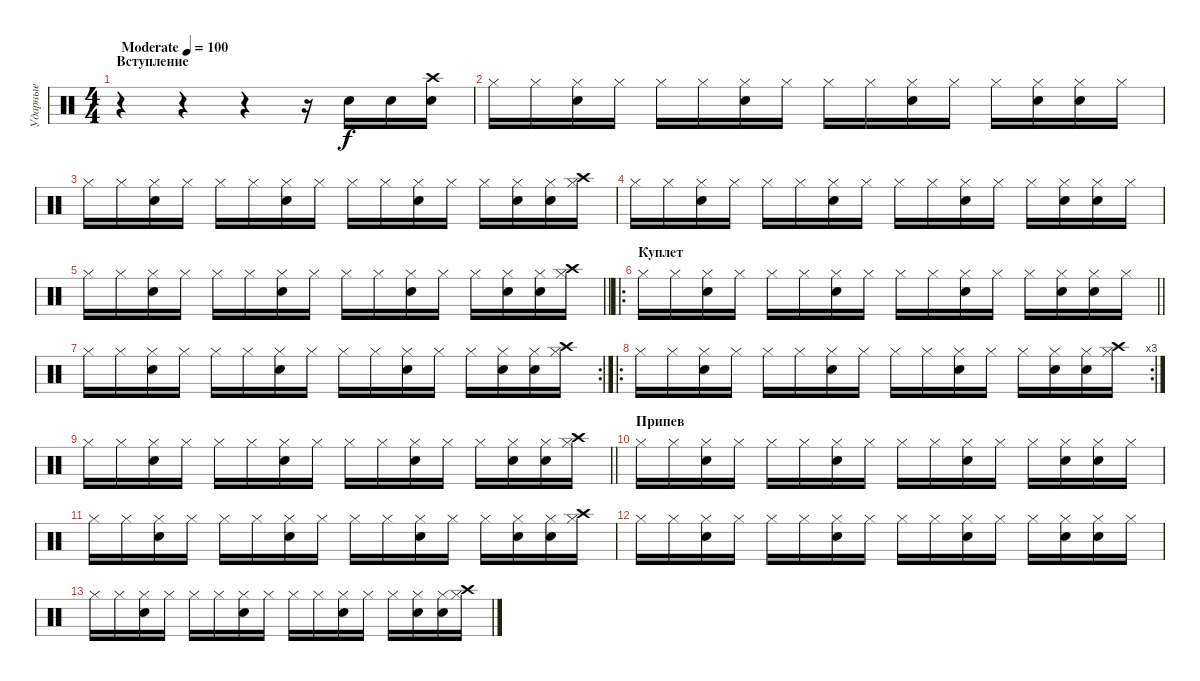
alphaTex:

\track ("Ударные" "Ударные") {instrument percussion}
\staff {score}
\articulation defaults
\ts (4 4)
\section ("" "Вступление")
\tempo (100 "Moderate")
\clef neutral
\ks c
r.4{dy f} r.4 r.4 r.16 "Snare (hit) 2".16 "Snare (hit) 2".16 ("Snare (hit) 2" "Crash high (hit)").16 |
"Hi-Hat (closed)".16 "Hi-Hat (closed)".16 ("Hi-Hat (closed)" "Snare (hit) 2").16 "Hi-Hat (closed)".16 "Hi-Hat (closed)".16 "Hi-Hat (closed)".16 ("Hi-Hat (closed)" "Electric Snare (hit)").16 "Hi-Hat (closed)".16 "Hi-Hat (closed)".16 "Hi-Hat (closed)".16 ("Hi-Hat (closed)" "Electric Snare (hit)").16 "Hi-Hat (closed)".16 "Hi-Hat (closed)".16 ("Hi-Hat (closed)" "Snare (hit) 2").16 ("Hi-Hat (closed)" "Electric Snare (hit)").16 "Hi-Hat (closed)".16 |
"Hi-Hat (closed)".16 "Hi-Hat (closed)".16 ("Hi-Hat (closed)" "Snare (hit) 2").16 "Hi-Hat (closed)".16 "Hi-Hat (closed)".16 "Hi-Hat (closed)".16 ("Hi-Hat (closed)" "Electric Snare (hit)").16 "Hi-Hat (closed)".16 "Hi-Hat (closed)".16 "Hi-Hat (closed)".16 ("Hi-Hat (closed)" "Electric Snare (hit)").16 "Hi-Hat (closed)".16 "Hi-Hat (closed)".16 ("Hi-Hat (closed)" "Snare (hit) 2").16 ("Hi-Hat (closed)" "Electric Snare (hit)").16 ("Hi-Hat (closed)" "Crash high (hit)").16 |
"Hi-Hat (closed)".16 "Hi-Hat (closed)".16 ("Hi-Hat (closed)" "Snare (hit) 2").16 "Hi-Hat (closed)".16 "Hi-Hat (closed)".16 "Hi-Hat (closed)".16 ("Hi-Hat (closed)" "Electric Snare (hit)").16 "Hi-Hat (closed)".16 "Hi-Hat (closed)".16 "Hi-Hat (closed)".16 ("Hi-Hat (closed)" "Electric Snare (hit)").16 "Hi-Hat (closed)".16 "Hi-Hat (closed)".16 ("Hi-Hat (closed)" "Snare (hit) 2").16 ("Hi-Hat (closed)" "Electric Snare (hit)").16 "Hi-Hat (closed)".16 |
\barLineRight lightlight "Hi-Hat (closed)".16 "Hi-Hat (closed)".16
("Hi-Hat (closed)" "Snare (hit) 2").16 "Hi-Hat (closed)".16 "Hi-Hat (closed)".16 "Hi-Hat (closed)".16 ("Hi-Hat (closed)" "Electric Snare (hit)").16 "Hi-Hat (closed)".16 "Hi-Hat (closed)".16 "Hi-Hat (closed)".16 ("Hi-Hat (closed)" "Electric Snare (hit)").16 "Hi-Hat (closed)".16 "Hi-Hat (closed)".16 ("Hi-Hat (closed)" "Snare (hit) 2").16 ("Hi-Hat (closed)" "Electric Snare (hit)").16 ("Hi-Hat (closed)" "Crash high (hit)").16 |
\ro
\section ("" "Куплет")
\barLineRight lightlight "Hi-Hat (closed)".16 "Hi-Hat (closed)".16
("Hi-Hat (closed)" "Snare (hit) 2").16 "Hi-Hat (closed)".16 "Hi-Hat (closed)".16 "Hi-Hat (closed)".16 ("Hi-Hat (closed)" "Electric Snare (hit)").16 "Hi-Hat (closed)".16 "Hi-Hat (closed)".16 "Hi-Hat (closed)".16 ("Hi-Hat (closed)" "Electric Snare (hit)").16 "Hi-Hat (closed)".16 "Hi-Hat (closed)".16 ("Hi-Hat (closed)" "Snare (hit) 2").16 ("Hi-Hat (closed)" "Electric Snare (hit)").16 "Hi-Hat (closed)".16 |
\rc 2
\section ("" "")
"Hi-Hat (closed)".16 "Hi-Hat (closed)".16 ("Hi-Hat (closed)" "Snare (hit) 2").16 "Hi-Hat (closed)".16 "Hi-Hat (closed)".16 "Hi-Hat (closed)".16 ("Hi-Hat (closed)" "Electric Snare (hit)").16 "Hi-Hat (closed)".16 "Hi-Hat (closed)".16 "Hi-Hat (closed)".16 ("Hi-Hat (closed)" "Electric Snare (hit)").16 "Hi-Hat (closed)".16 "Hi-Hat (closed)".16 ("Hi-Hat (closed)" "Snare (hit) 2").16 ("Hi-Hat (closed)" "Electric Snare (hit)").16 ("Hi-Hat (closed)" "Crash high (hit)").16 |
\ro
\rc 3 "Hi-Hat (closed)".16 "Hi-Hat (closed)".16
("Hi-Hat (closed)" "Snare (hit) 2").16 "Hi-Hat (closed)".16 "Hi-Hat (closed)".16 "Hi-Hat (closed)".16 ("Hi-Hat (closed)" "Electric Snare (hit)").16 "Hi-Hat (closed)".16 "Hi-Hat (closed)".16 "Hi-Hat (closed)".16 ("Hi-Hat (closed)" "Electric Snare (hit)").16 "Hi-Hat (closed)".16 "Hi-Hat (closed)".16 ("Hi-Hat (closed)" "Snare (hit) 2").16 ("Hi-Hat (closed)" "Electric Snare (hit)").16 ("Hi-Hat (closed)" "Crash high (hit)").16 |
\barLineRight lightlight "Hi-Hat (closed)".16 "Hi-Hat (closed)".16
("Hi-Hat (closed)" "Snare (hit) 2").16 "Hi-Hat (closed)".16 "Hi-Hat (closed)".16 "Hi-Hat (closed)".16 ("Hi-Hat (closed)" "Electric Snare (hit)").16 "Hi-Hat (closed)".16 "Hi-Hat (closed)".16 "Hi-Hat (closed)".16 ("Hi-Hat (closed)" "Electric Snare (hit)").16 "Hi-Hat (closed)".16 "Hi-Hat (closed)".16 ("Hi-Hat (closed)" "Snare (hit) 2").16 ("Hi-Hat (closed)" "Electric Snare (hit)").16 ("Hi-Hat (closed)" "Crash high (hit)").16 |
\section ("" "Припев")
"Hi-Hat (closed)".16 "Hi-Hat (closed)".16 ("Hi-Hat (closed)" "Snare (hit) 2").16 "Hi-Hat (closed)".16 "Hi-Hat (closed)".16 "Hi-Hat (closed)".16 ("Hi-Hat (closed)" "Electric Snare (hit)").16 "Hi-Hat (closed)".16 "Hi-Hat (closed)".16 "Hi-Hat (closed)".16 ("Hi-Hat (closed)" "Electric Snare (hit)").16 "Hi-Hat (closed)".16 "Hi-Hat (closed)".16 ("Hi-Hat (closed)" "Snare (hit) 2").16 ("Hi-Hat (closed)" "Electric Snare (hit)").16 "Hi-Hat (closed)".16 |
"Hi-Hat (closed)".16 "Hi-Hat (closed)".16 ("Hi-Hat (closed)" "Snare (hit) 2").16 "Hi-Hat (closed)".16 "Hi-Hat (closed)".16 "Hi-Hat (closed)".16 ("Hi-Hat (closed)" "Electric Snare (hit)").16 "Hi-Hat (closed)".16 "Hi-Hat (closed)".16 "Hi-Hat (closed)".16 ("Hi-Hat (closed)" "Electric Snare (hit)").16 "Hi-Hat (closed)".16 "Hi-Hat (closed)".16 ("Hi-Hat (closed)" "Snare (hit) 2").16 ("Hi-Hat (closed)" "Electric Snare (hit)").16 ("Hi-Hat (closed)" "Crash high (hit)").16 |
"Hi-Hat (closed)".16 "Hi-Hat (closed)".16 ("Hi-Hat (closed)" "Snare (hit) 2").16 "Hi-Hat (closed)".16 "Hi-Hat (closed)".16 "Hi-Hat (closed)".16 ("Hi-Hat (closed)" "Electric Snare (hit)").16 "Hi-Hat (closed)".16 "Hi-Hat (closed)".16 "Hi-Hat (closed)".16 ("Hi-Hat (closed)" "Electric Snare (hit)").16 "Hi-Hat (closed)".16 "Hi-Hat (closed)".16 ("Hi-Hat (closed)" "Snare (hit) 2").16 ("Hi-Hat (closed)" "Electric Snare (hit)").16 "Hi-Hat (closed)".16 |
"Hi-Hat (closed)".16 "Hi-Hat (closed)".16 ("Hi-Hat (closed)" "Snare (hit) 2").16 "Hi-Hat (closed)".16 "Hi-Hat (closed)".16 "Hi-Hat (closed)".16 ("Hi-Hat (closed)" "Electric Snare (hit)").16 "Hi-Hat (closed)".16 "Hi-Hat (closed)".16 "Hi-Hat (closed)".16 ("Hi-Hat (closed)" "Electric Snare (hit)").16 "Hi-Hat (closed)".16 "Hi-Hat (closed)".16 ("Hi-Hat (closed)" "Snare (hit) 2").16 ("Hi-Hat (closed)" "Electric Snare (hit)").16 ("Hi-Hat (closed)" "Crash high (hit)").16
